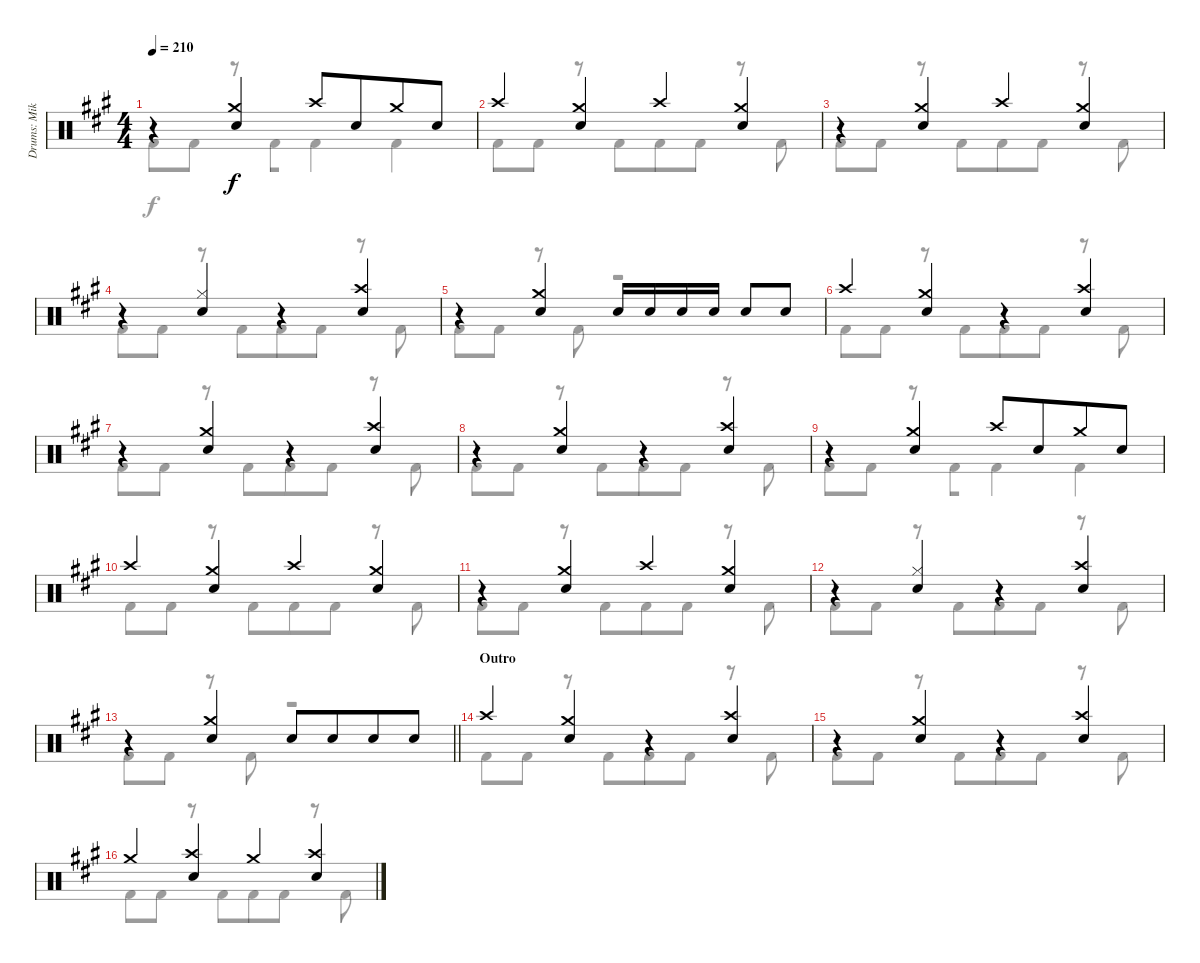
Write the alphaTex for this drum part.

\track ("Drums: Mikkey" "Drums: Mik") {instrument percussion}
\staff {score}
\articulation defaults
\voice
\ts (4 4)
\tempo 210
\clef neutral
\ks a
r.4{dy f} ("Crash medium (hit)" "Snare (hit) 2").4 "Crash high (hit)".8 "Snare (hit) 2".8{beam merge} "Crash medium (hit)".8 "Snare (hit) 2".8 |
"Crash high (hit)".4 ("Crash medium (hit)" "Snare (hit) 2").4 "Crash high (hit)".4{beam merge} ("Crash medium (hit)" "Snare (hit) 2").4 |
r.4 ("Crash medium (hit)" "Snare (hit) 2").4 "Crash high (hit)".4 ("Crash medium (hit)" "Snare (hit) 2").4 |
r.4 ("Hi-Hat (closed)" "Snare (hit) 2").4 r.4 ("Crash high (hit)" "Snare (hit) 2").4 |
r.4 ("Crash medium (hit)" "Snare (hit) 2").4 "Snare (hit) 2".16{beam merge} "Snare (hit) 2".16 "Snare (hit) 2".16 "Snare (hit) 2".16 "Snare (hit) 2".8 "Snare (hit) 2".8 |
"Crash high (hit)".4 ("Crash medium (hit)" "Snare (hit) 2").4 r.4 ("Crash high (hit)" "Snare (hit) 2").4 |
r.4 ("Crash medium (hit)" "Snare (hit) 2").4 r.4 ("Crash high (hit)" "Snare (hit) 2").4 |
r.4 ("Crash medium (hit)" "Snare (hit) 2").4 r.4 ("Crash high (hit)" "Snare (hit) 2").4 |
r.4 ("Crash medium (hit)" "Snare (hit) 2").4 "Crash high (hit)".8 "Snare (hit) 2".8{beam merge} "Crash medium (hit)".8 "Snare (hit) 2".8 |
"Crash high (hit)".4 ("Crash medium (hit)" "Snare (hit) 2").4 "Crash high (hit)".4{beam merge} ("Crash medium (hit)" "Snare (hit) 2").4 |
r.4 ("Crash medium (hit)" "Snare (hit) 2").4 "Crash high (hit)".4 ("Crash medium (hit)" "Snare (hit) 2").4 |
r.4 ("Hi-Hat (closed)" "Snare (hit) 2").4 r.4 ("Crash high (hit)" "Snare (hit) 2").4 |
\barLineRight lightlight
r.4 ("Crash medium (hit)" "Snare (hit) 2").4 "Snare (hit) 2".8{beam merge} "Snare (hit) 2".8{beam merge} "Snare (hit) 2".8 "Snare (hit) 2".8 |
\section ("" "Outro")
"Crash high (hit)".4 ("Crash medium (hit)" "Snare (hit) 2").4 r.4 ("Crash high (hit)" "Snare (hit) 2").4 |
r.4 ("Crash medium (hit)" "Snare (hit) 2").4 r.4 ("Crash high (hit)" "Snare (hit) 2").4 |
"Crash medium (hit)".4 ("Crash high (hit)" "Snare (hit) 2").4 "Crash medium (hit)".4 ("Crash high (hit)" "Snare (hit) 2").4
\voice
\clef neutral
\ottava regular
\simile none
\ks a "Kick (hit) 2".8{dy f} "Kick (hit) 2".8
r.8 "Kick (hit) 2".8{beam merge} "Kick (hit) 2".4 "Kick (hit) 2".4 |
"Kick (hit) 2".8 "Kick (hit) 2".8 r.8 "Kick (hit) 2".8{beam merge} "Kick (hit) 2".8 "Kick (hit) 2".8 r.8 "Kick (hit) 2".8 |
"Kick (hit) 2".8 "Kick (hit) 2".8 r.8 "Kick (hit) 2".8{beam merge} "Kick (hit) 2".8 "Kick (hit) 2".8 r.8 "Kick (hit) 2".8 |
"Kick (hit) 2".8 "Kick (hit) 2".8 r.8 "Kick (hit) 2".8{beam merge} "Kick (hit) 2".8 "Kick (hit) 2".8 r.8 "Kick (hit) 2".8 |
"Kick (hit) 2".8 "Kick (hit) 2".8 r.8 "Kick (hit) 2".8{beam merge} r.2 |
"Kick (hit) 2".8 "Kick (hit) 2".8 r.8 "Kick (hit) 2".8{beam merge} "Kick (hit) 2".8 "Kick (hit) 2".8 r.8 "Kick (hit) 2".8 |
"Kick (hit) 2".8 "Kick (hit) 2".8 r.8 "Kick (hit) 2".8{beam merge} "Kick (hit) 2".8 "Kick (hit) 2".8 r.8 "Kick (hit) 2".8 |
"Kick (hit) 2".8 "Kick (hit) 2".8 r.8 "Kick (hit) 2".8{beam merge} "Kick (hit) 2".8 "Kick (hit) 2".8 r.8 "Kick (hit) 2".8 |
"Kick (hit) 2".8 "Kick (hit) 2".8 r.8 "Kick (hit) 2".8{beam merge} "Kick (hit) 2".4 "Kick (hit) 2".4 |
"Kick (hit) 2".8 "Kick (hit) 2".8 r.8 "Kick (hit) 2".8{beam merge} "Kick (hit) 2".8 "Kick (hit) 2".8 r.8 "Kick (hit) 2".8 |
"Kick (hit) 2".8 "Kick (hit) 2".8 r.8 "Kick (hit) 2".8{beam merge} "Kick (hit) 2".8 "Kick (hit) 2".8 r.8 "Kick (hit) 2".8 |
"Kick (hit) 2".8 "Kick (hit) 2".8 r.8 "Kick (hit) 2".8{beam merge} "Kick (hit) 2".8 "Kick (hit) 2".8 r.8 "Kick (hit) 2".8 |
\barLineRight lightlight "Kick (hit) 2".8 "Kick (hit) 2".8
r.8 "Kick (hit) 2".8{beam merge} r.2 |
"Kick (hit) 2".8 "Kick (hit) 2".8 r.8 "Kick (hit) 2".8{beam merge} "Kick (hit) 2".8 "Kick (hit) 2".8 r.8 "Kick (hit) 2".8 |
"Kick (hit) 2".8 "Kick (hit) 2".8 r.8 "Kick (hit) 2".8{beam merge} "Kick (hit) 2".8 "Kick (hit) 2".8 r.8 "Kick (hit) 2".8 |
"Kick (hit) 2".8 "Kick (hit) 2".8 r.8 "Kick (hit) 2".8{beam merge} "Kick (hit) 2".8 "Kick (hit) 2".8 r.8 "Kick (hit) 2".8
